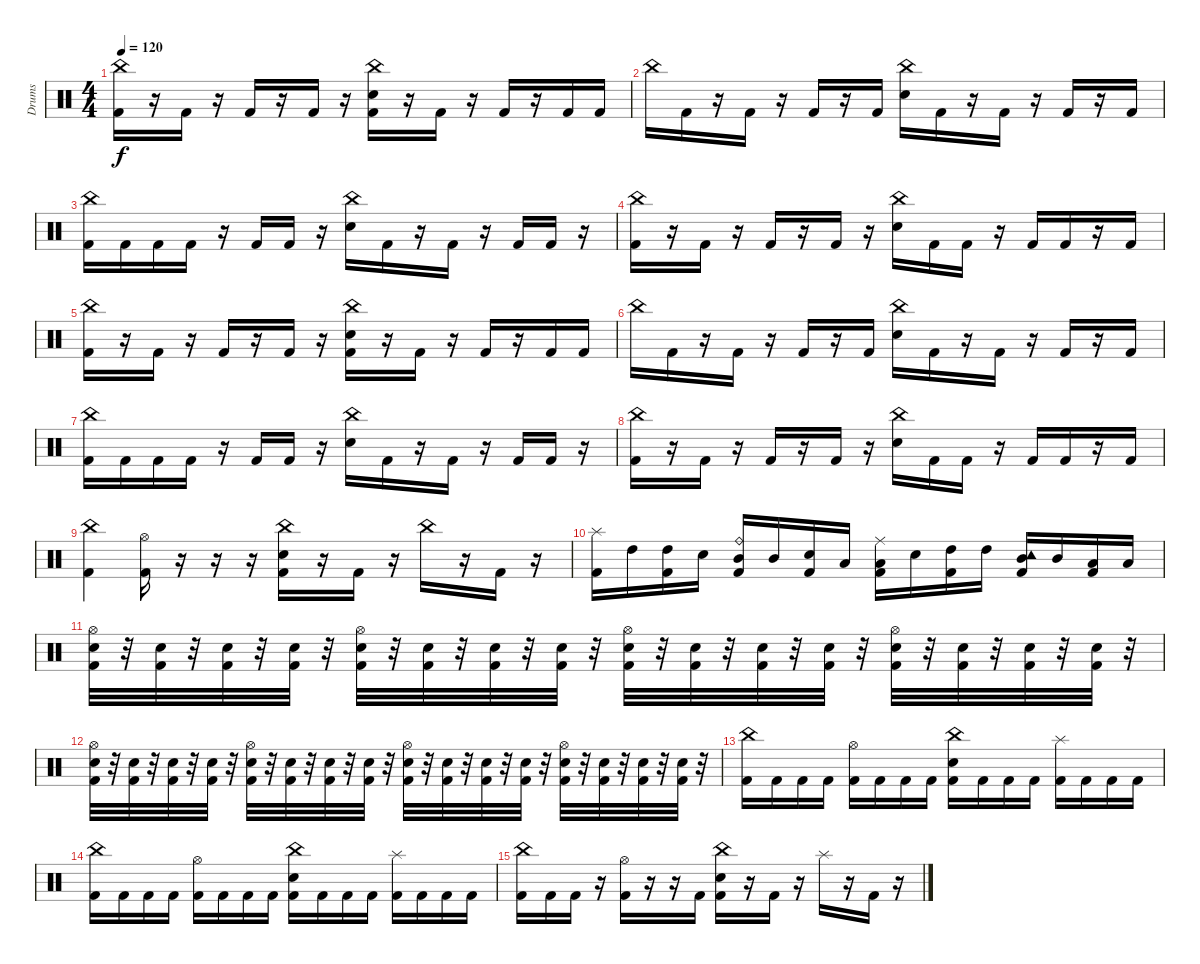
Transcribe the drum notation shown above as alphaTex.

\track ("Drums" "Drums") {instrument percussion}
\staff {score}
\articulation defaults
\ts (4 4)
\tempo 120
\clef neutral
\ks c
("China (hit)" "Kick (hit) 2").16{dy f} r.16 "Kick (hit) 2".16 r.16 "Kick (hit) 2".16 r.16 "Kick (hit) 2".16 r.16 ("China (hit)" "Snare (hit) 2" "Kick (hit) 2").16 r.16 "Kick (hit) 2".16 r.16 "Kick (hit) 2".16 r.16 "Kick (hit) 2".16 "Kick (hit) 2".16 |
"China (hit)".16 "Kick (hit) 2".16 r.16 "Kick (hit) 2".16 r.16 "Kick (hit) 2".16 r.16 "Kick (hit) 2".16 ("China (hit)" "Snare (hit) 2").16 "Kick (hit) 2".16 r.16 "Kick (hit) 2".16 r.16 "Kick (hit) 2".16 r.16 "Kick (hit) 2".16 |
("China (hit)" "Kick (hit) 2").16 "Kick (hit) 2".16 "Kick (hit) 2".16 "Kick (hit) 2".16 r.16 "Kick (hit) 2".16 "Kick (hit) 2".16 r.16 ("China (hit)" "Snare (hit) 2").16 "Kick (hit) 2".16 r.16 "Kick (hit) 2".16 r.16 "Kick (hit) 2".16 "Kick (hit) 2".16 r.16 |
("China (hit)" "Kick (hit) 2").16 r.16 "Kick (hit) 2".16 r.16 "Kick (hit) 2".16 r.16 "Kick (hit) 2".16 r.16 ("China (hit)" "Snare (hit) 2").16 "Kick (hit) 2".16 "Kick (hit) 2".16 r.16 "Kick (hit) 2".16 "Kick (hit) 2".16 r.16 "Kick (hit) 2".16 |
("China (hit)" "Kick (hit) 2").16 r.16 "Kick (hit) 2".16 r.16 "Kick (hit) 2".16 r.16 "Kick (hit) 2".16 r.16 ("China (hit)" "Snare (hit) 2" "Kick (hit) 2").16 r.16 "Kick (hit) 2".16 r.16 "Kick (hit) 2".16 r.16 "Kick (hit) 2".16 "Kick (hit) 2".16 |
"China (hit)".16 "Kick (hit) 2".16 r.16 "Kick (hit) 2".16 r.16 "Kick (hit) 2".16 r.16 "Kick (hit) 2".16 ("China (hit)" "Snare (hit) 2").16 "Kick (hit) 2".16 r.16 "Kick (hit) 2".16 r.16 "Kick (hit) 2".16 r.16 "Kick (hit) 2".16 |
("China (hit)" "Kick (hit) 2").16 "Kick (hit) 2".16 "Kick (hit) 2".16 "Kick (hit) 2".16 r.16 "Kick (hit) 2".16 "Kick (hit) 2".16 r.16 ("China (hit)" "Snare (hit) 2").16 "Kick (hit) 2".16 r.16 "Kick (hit) 2".16 r.16 "Kick (hit) 2".16 "Kick (hit) 2".16 r.16 |
("China (hit)" "Kick (hit) 2").16 r.16 "Kick (hit) 2".16 r.16 "Kick (hit) 2".16 r.16 "Kick (hit) 2".16 r.16 ("China (hit)" "Snare (hit) 2").16 "Kick (hit) 2".16 "Kick (hit) 2".16 r.16 "Kick (hit) 2".16 "Kick (hit) 2".16 r.16 "Kick (hit) 2".16 |
("China (hit)" "Kick (hit) 2").4 ("Hi-Hat (open)" "Kick (hit) 2").16 r.16 r.16 r.16 ("China (hit)" "Snare (hit) 2" "Kick (hit) 2").16 r.16 "Kick (hit) 2".16 r.16 "China (hit)".16 r.16 "Kick (hit) 2".16 r.16 |
("Splash (hit)" "Kick (hit) 2").16 "High Tom (hit)".16 ("High Tom (hit)" "Kick (hit) 2").16 "Snare (hit) 2".16 ("Ride (bell)" "Mid Tom (hit)" "Kick (hit) 2").16 "Mid Tom (hit)".16 ("Snare (hit) 2" "Kick (hit) 2").16 "Low Tom (hit)".16 ("Ride (middle)" "Low Tom (hit)" "Kick (hit) 2").16 "Snare (hit) 2".16 ("High Tom (hit)" "Kick (hit) 2").16 "High Tom (hit)".16 ("Tambourine (hit)" "Mid Tom (hit)" "Kick (hit) 2").16 "Mid Tom (hit)".16 ("Low Tom (hit)" "Kick (hit) 2").16 "Low Tom (hit)".16 |
("Hi-Hat (open)" "Snare (hit) 2" "Kick (hit) 2").32 r.32 ("Snare (hit) 2" "Kick (hit) 2").32 r.32 ("Snare (hit) 2" "Kick (hit) 2").32 r.32 ("Snare (hit) 2" "Kick (hit) 2").32 r.32 ("Hi-Hat (open)" "Snare (hit) 2" "Kick (hit) 2").32 r.32 ("Snare (hit) 2" "Kick (hit) 2").32 r.32 ("Snare (hit) 2" "Kick (hit) 2").32 r.32 ("Snare (hit) 2" "Kick (hit) 2").32 r.32 ("Hi-Hat (open)" "Snare (hit) 2" "Kick (hit) 2").32 r.32 ("Snare (hit) 2" "Kick (hit) 2").32 r.32 ("Snare (hit) 2" "Kick (hit) 2").32 r.32 ("Snare (hit) 2" "Kick (hit) 2").32 r.32 ("Hi-Hat (open)" "Snare (hit) 2" "Kick (hit) 2").32 r.32 ("Snare (hit) 2" "Kick (hit) 2").32 r.32 ("Snare (hit) 2" "Kick (hit) 2").32 r.32 ("Snare (hit) 2" "Kick (hit) 2").32 r.32 |
("Hi-Hat (open)" "Snare (hit) 2" "Kick (hit) 2").32 r.32 ("Snare (hit) 2" "Kick (hit) 2").32 r.32 ("Snare (hit) 2" "Kick (hit) 2").32 r.32 ("Snare (hit) 2" "Kick (hit) 2").32 r.32 ("Hi-Hat (open)" "Snare (hit) 2" "Kick (hit) 2").32 r.32 ("Snare (hit) 2" "Kick (hit) 2").32 r.32 ("Snare (hit) 2" "Kick (hit) 2").32 r.32 ("Snare (hit) 2" "Kick (hit) 2").32 r.32 ("Hi-Hat (open)" "Snare (hit) 2" "Kick (hit) 2").32 r.32 ("Snare (hit) 2" "Kick (hit) 2").32 r.32 ("Snare (hit) 2" "Kick (hit) 2").32 r.32 ("Snare (hit) 2" "Kick (hit) 2").32 r.32 ("Hi-Hat (open)" "Snare (hit) 2" "Kick (hit) 2").32 r.32 ("Snare (hit) 2" "Kick (hit) 2").32 r.32 ("Snare (hit) 2" "Kick (hit) 2").32 r.32 ("Snare (hit) 2" "Kick (hit) 2").32 r.32 |
("China (hit)" "Kick (hit) 2").16 "Kick (hit) 2".16 "Kick (hit) 2".16 "Kick (hit) 2".16 ("Hi-Hat (open)" "Kick (hit) 2").16 "Kick (hit) 2".16 "Kick (hit) 2".16 "Kick (hit) 2".16 ("China (hit)" "Snare (hit) 2" "Kick (hit) 2").16 "Kick (hit) 2".16 "Kick (hit) 2".16 "Kick (hit) 2".16 ("Splash (hit)" "Kick (hit) 2").16 "Kick (hit) 2".16 "Kick (hit) 2".16 "Kick (hit) 2".16 |
("China (hit)" "Kick (hit) 2").16 "Kick (hit) 2".16 "Kick (hit) 2".16 "Kick (hit) 2".16 ("Hi-Hat (open)" "Kick (hit) 2").16 "Kick (hit) 2".16 "Kick (hit) 2".16 "Kick (hit) 2".16 ("China (hit)" "Snare (hit) 2" "Kick (hit) 2").16 "Kick (hit) 2".16 "Kick (hit) 2".16 "Kick (hit) 2".16 ("Splash (hit)" "Kick (hit) 2").16 "Kick (hit) 2".16 "Kick (hit) 2".16 "Kick (hit) 2".16 |
("China (hit)" "Kick (hit) 2").16 "Kick (hit) 2".16 "Kick (hit) 2".16 r.16 ("Hi-Hat (open)" "Kick (hit) 2").16 r.16 r.16 "Kick (hit) 2".16 ("China (hit)" "Snare (hit) 2" "Kick (hit) 2").16 r.16 "Kick (hit) 2".16 r.16 "Splash (hit)".16 r.16 "Kick (hit) 2".16 r.16
